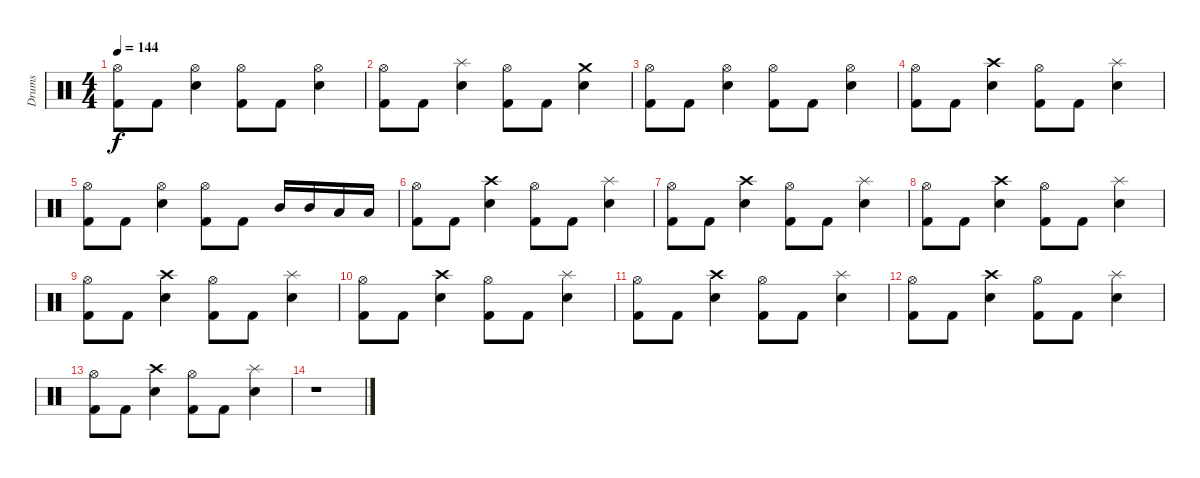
\track ("Drums" "Drums") {instrument percussion}
\staff {score}
\articulation defaults
\ts (4 4)
\tempo 144
\clef neutral
\ks c
("Kick (hit) 2" "Hi-Hat (open)").8{dy f} "Kick (hit) 2".8 ("Snare (hit) 2" "Hi-Hat (open)").4 ("Kick (hit) 2" "Hi-Hat (open)").8 "Kick (hit) 2".8 ("Snare (hit) 2" "Hi-Hat (open)").4 |
("Kick (hit) 2" "Hi-Hat (open)").8 "Kick (hit) 2".8 ("Snare (hit) 2" "Splash (hit)").4 ("Kick (hit) 2" "Hi-Hat (open)").8 "Kick (hit) 2".8 ("Snare (hit) 2" "Crash medium (hit)").4 |
("Kick (hit) 2" "Hi-Hat (open)").8 "Kick (hit) 2".8 ("Snare (hit) 2" "Hi-Hat (open)").4 ("Kick (hit) 2" "Hi-Hat (open)").8 "Kick (hit) 2".8 ("Snare (hit) 2" "Hi-Hat (open)").4 |
("Kick (hit) 2" "Hi-Hat (open)").8 "Kick (hit) 2".8 ("Snare (hit) 2" "Crash high (hit)").4 ("Kick (hit) 2" "Hi-Hat (open)").8 "Kick (hit) 2".8 ("Snare (hit) 2" "Splash (hit)").4 |
("Kick (hit) 2" "Hi-Hat (open)").8 "Kick (hit) 2".8 ("Snare (hit) 2" "Hi-Hat (open)").4 ("Kick (hit) 2" "Hi-Hat (open)").8 "Kick (hit) 2".8 "Mid Tom (hit)".16 "Mid Tom (hit)".16 "Low Tom (hit)".16 "Low Tom (hit)".16 |
("Kick (hit) 2" "Hi-Hat (open)").8{volume 13} "Kick (hit) 2".8 ("Snare (hit) 2" "Crash high (hit)").4 ("Kick (hit) 2" "Hi-Hat (open)").8 "Kick (hit) 2".8 ("Snare (hit) 2" "Splash (hit)").4 |
("Kick (hit) 2" "Hi-Hat (open)").8 "Kick (hit) 2".8 ("Snare (hit) 2" "Crash high (hit)").4 ("Kick (hit) 2" "Hi-Hat (open)").8 "Kick (hit) 2".8 ("Snare (hit) 2" "Splash (hit)").4 |
("Kick (hit) 2" "Hi-Hat (open)").8{volume 6} "Kick (hit) 2".8 ("Snare (hit) 2" "Crash high (hit)").4 ("Kick (hit) 2" "Hi-Hat (open)").8 "Kick (hit) 2".8 ("Snare (hit) 2" "Splash (hit)").4 |
("Kick (hit) 2" "Hi-Hat (open)").8 "Kick (hit) 2".8 ("Snare (hit) 2" "Crash high (hit)").4 ("Kick (hit) 2" "Hi-Hat (open)").8 "Kick (hit) 2".8 ("Snare (hit) 2" "Splash (hit)").4 |
("Kick (hit) 2" "Hi-Hat (open)").8{volume 4} "Kick (hit) 2".8 ("Snare (hit) 2" "Crash high (hit)").4 ("Kick (hit) 2" "Hi-Hat (open)").8 "Kick (hit) 2".8 ("Snare (hit) 2" "Splash (hit)").4 |
("Kick (hit) 2" "Hi-Hat (open)").8 "Kick (hit) 2".8 ("Snare (hit) 2" "Crash high (hit)").4 ("Kick (hit) 2" "Hi-Hat (open)").8 "Kick (hit) 2".8 ("Snare (hit) 2" "Splash (hit)").4 |
("Kick (hit) 2" "Hi-Hat (open)").8{volume 0} "Kick (hit) 2".8 ("Snare (hit) 2" "Crash high (hit)").4 ("Kick (hit) 2" "Hi-Hat (open)").8 "Kick (hit) 2".8 ("Snare (hit) 2" "Splash (hit)").4 |
("Kick (hit) 2" "Hi-Hat (open)").8 "Kick (hit) 2".8 ("Snare (hit) 2" "Crash high (hit)").4 ("Kick (hit) 2" "Hi-Hat (open)").8 "Kick (hit) 2".8 ("Snare (hit) 2" "Splash (hit)").4 |
r.1
